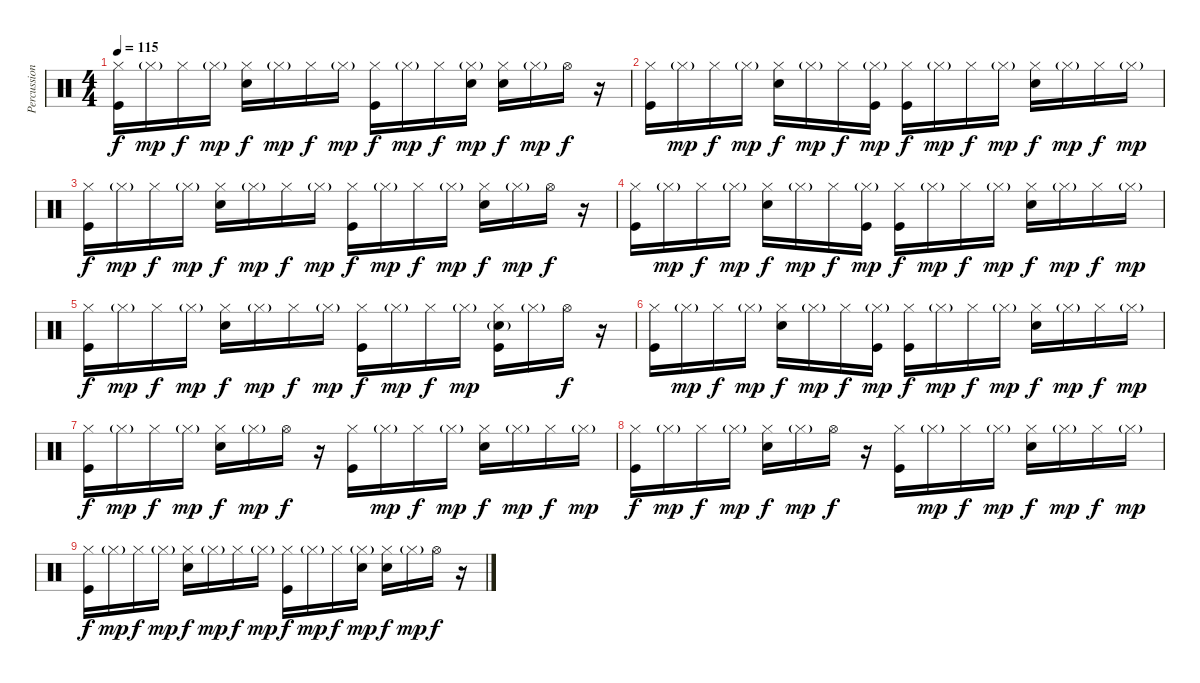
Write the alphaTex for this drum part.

\track ("Percussion" "Percussion") {instrument percussion bank 177}
\staff {score}
\articulation defaults
\ts (4 4)
\tempo 115
\clef neutral
\ks c
("Hi-Hat (closed)" "Kick (hit)").16{dy f} "Hi-Hat (closed)"{g}.16{dy mp} "Hi-Hat (closed)".16{dy f} "Hi-Hat (closed)"{g}.16{dy mp} ("Hi-Hat (closed)" "Snare (hit) 2").16{dy f} "Hi-Hat (closed)"{g}.16{dy mp} "Hi-Hat (closed)".16{dy f} "Hi-Hat (closed)"{g}.16{dy mp} ("Hi-Hat (closed)" "Kick (hit)").16{dy f} "Hi-Hat (closed)"{g}.16{dy mp} "Hi-Hat (closed)".16{dy f} ("Hi-Hat (closed)"{g} "Snare (hit) 2").16{dy mp} ("Hi-Hat (closed)" "Snare (hit) 2").16{dy f} "Hi-Hat (closed)"{g}.16{dy mp} "Hi-Hat (open)".16{dy f} r.16 |
("Hi-Hat (closed)" "Kick (hit)").16 "Hi-Hat (closed)"{g}.16{dy mp} "Hi-Hat (closed)".16{dy f} "Hi-Hat (closed)"{g}.16{dy mp} ("Hi-Hat (closed)" "Snare (hit) 2").16{dy f} "Hi-Hat (closed)"{g}.16{dy mp} "Hi-Hat (closed)".16{dy f} ("Hi-Hat (closed)"{g} "Kick (hit)").16{dy mp} ("Hi-Hat (closed)" "Kick (hit)").16{dy f} "Hi-Hat (closed)"{g}.16{dy mp} "Hi-Hat (closed)".16{dy f} "Hi-Hat (closed)"{g}.16{dy mp} ("Hi-Hat (closed)" "Snare (hit) 2").16{dy f} "Hi-Hat (closed)"{g}.16{dy mp} "Hi-Hat (closed)".16{dy f} "Hi-Hat (closed)"{g}.16{dy mp} |
("Hi-Hat (closed)" "Kick (hit)").16{dy f} "Hi-Hat (closed)"{g}.16{dy mp} "Hi-Hat (closed)".16{dy f} "Hi-Hat (closed)"{g}.16{dy mp} ("Hi-Hat (closed)" "Snare (hit) 2").16{dy f} "Hi-Hat (closed)"{g}.16{dy mp} "Hi-Hat (closed)".16{dy f} "Hi-Hat (closed)"{g}.16{dy mp} ("Hi-Hat (closed)" "Kick (hit)").16{dy f} "Hi-Hat (closed)"{g}.16{dy mp} "Hi-Hat (closed)".16{dy f} "Hi-Hat (closed)"{g}.16{dy mp} ("Hi-Hat (closed)" "Snare (hit) 2").16{dy f} "Hi-Hat (closed)"{g}.16{dy mp} "Hi-Hat (open)".16{dy f} r.16 |
("Hi-Hat (closed)" "Kick (hit)").16 "Hi-Hat (closed)"{g}.16{dy mp} "Hi-Hat (closed)".16{dy f} "Hi-Hat (closed)"{g}.16{dy mp} ("Hi-Hat (closed)" "Snare (hit) 2").16{dy f} "Hi-Hat (closed)"{g}.16{dy mp} "Hi-Hat (closed)".16{dy f} ("Hi-Hat (closed)"{g} "Kick (hit)").16{dy mp} ("Hi-Hat (closed)" "Kick (hit)").16{dy f} "Hi-Hat (closed)"{g}.16{dy mp} "Hi-Hat (closed)".16{dy f} "Hi-Hat (closed)"{g}.16{dy mp} ("Hi-Hat (closed)" "Snare (hit) 2").16{dy f} "Hi-Hat (closed)"{g}.16{dy mp} "Hi-Hat (closed)".16{dy f} "Hi-Hat (closed)"{g}.16{dy mp} |
("Hi-Hat (closed)" "Kick (hit)").16{dy f} "Hi-Hat (closed)"{g}.16{dy mp} "Hi-Hat (closed)".16{dy f} "Hi-Hat (closed)"{g}.16{dy mp} ("Hi-Hat (closed)" "Snare (hit) 2").16{dy f} "Hi-Hat (closed)"{g}.16{dy mp} "Hi-Hat (closed)".16{dy f} "Hi-Hat (closed)"{g}.16{dy mp} ("Hi-Hat (closed)" "Kick (hit)").16{dy f} "Hi-Hat (closed)"{g}.16{dy mp} "Hi-Hat (closed)".16{dy f} "Hi-Hat (closed)"{g}.16{dy mp} ("Hi-Hat (closed)" "Snare (hit) 2"{g} "Kick (hit)").16 "Hi-Hat (closed)"{g}.16 "Hi-Hat (open)".16{dy f} r.16 |
("Hi-Hat (closed)" "Kick (hit)").16 "Hi-Hat (closed)"{g}.16{dy mp} "Hi-Hat (closed)".16{dy f} "Hi-Hat (closed)"{g}.16{dy mp} ("Hi-Hat (closed)" "Snare (hit) 2").16{dy f} "Hi-Hat (closed)"{g}.16{dy mp} "Hi-Hat (closed)".16{dy f} ("Hi-Hat (closed)"{g} "Kick (hit)").16{dy mp} ("Hi-Hat (closed)" "Kick (hit)").16{dy f} "Hi-Hat (closed)"{g}.16{dy mp} "Hi-Hat (closed)".16{dy f} "Hi-Hat (closed)"{g}.16{dy mp} ("Hi-Hat (closed)" "Snare (hit) 2").16{dy f} "Hi-Hat (closed)"{g}.16{dy mp} "Hi-Hat (closed)".16{dy f} "Hi-Hat (closed)"{g}.16{dy mp} |
("Hi-Hat (closed)" "Kick (hit)").16{dy f} "Hi-Hat (closed)"{g}.16{dy mp} "Hi-Hat (closed)".16{dy f} "Hi-Hat (closed)"{g}.16{dy mp} ("Hi-Hat (closed)" "Snare (hit) 2").16{dy f} "Hi-Hat (closed)"{g}.16{dy mp} "Hi-Hat (open)".16{dy f} r.16 ("Hi-Hat (closed)" "Kick (hit)").16 "Hi-Hat (closed)"{g}.16{dy mp} "Hi-Hat (closed)".16{dy f} "Hi-Hat (closed)"{g}.16{dy mp} ("Hi-Hat (closed)" "Snare (hit) 2").16{dy f} "Hi-Hat (closed)"{g}.16{dy mp} "Hi-Hat (closed)".16{dy f} "Hi-Hat (closed)"{g}.16{dy mp} |
("Hi-Hat (closed)" "Kick (hit)").16{dy f} "Hi-Hat (closed)"{g}.16{dy mp} "Hi-Hat (closed)".16{dy f} "Hi-Hat (closed)"{g}.16{dy mp} ("Hi-Hat (closed)" "Snare (hit) 2").16{dy f} "Hi-Hat (closed)"{g}.16{dy mp} "Hi-Hat (open)".16{dy f} r.16 ("Hi-Hat (closed)" "Kick (hit)").16 "Hi-Hat (closed)"{g}.16{dy mp} "Hi-Hat (closed)".16{dy f} "Hi-Hat (closed)"{g}.16{dy mp} ("Hi-Hat (closed)" "Snare (hit) 2").16{dy f} "Hi-Hat (closed)"{g}.16{dy mp} "Hi-Hat (closed)".16{dy f} "Hi-Hat (closed)"{g}.16{dy mp} |
("Hi-Hat (closed)" "Kick (hit)").16{dy f} "Hi-Hat (closed)"{g}.16{dy mp} "Hi-Hat (closed)".16{dy f} "Hi-Hat (closed)"{g}.16{dy mp} ("Hi-Hat (closed)" "Snare (hit) 2").16{dy f} "Hi-Hat (closed)"{g}.16{dy mp} "Hi-Hat (closed)".16{dy f} "Hi-Hat (closed)"{g}.16{dy mp} ("Hi-Hat (closed)" "Kick (hit)").16{dy f} "Hi-Hat (closed)"{g}.16{dy mp} "Hi-Hat (closed)".16{dy f} ("Hi-Hat (closed)"{g} "Snare (hit) 2").16{dy mp} ("Hi-Hat (closed)" "Snare (hit) 2").16{dy f} "Hi-Hat (closed)"{g}.16{dy mp} "Hi-Hat (open)".16{dy f} r.16
